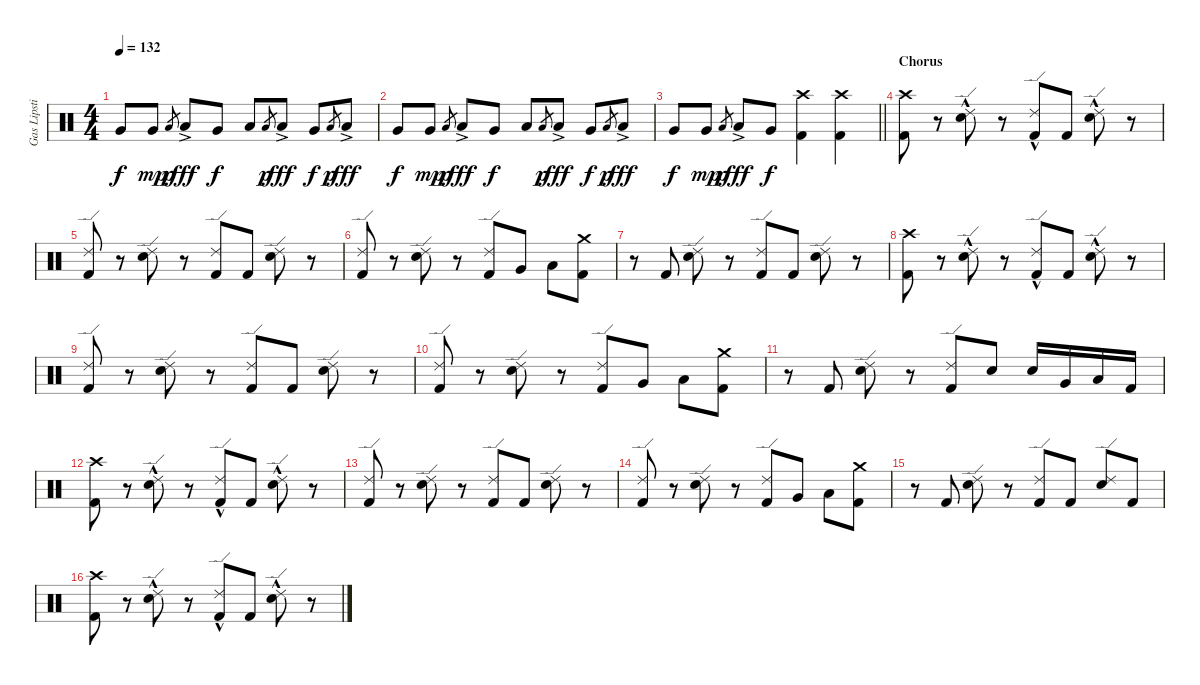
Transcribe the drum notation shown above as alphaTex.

\track ("Gas Lipstick (Drums)" "Gas Lipsti") {instrument percussion}
\staff {score}
\articulation defaults
\ts (4 4)
\tempo 132
\clef neutral
\ks c "Very Low Tom (hit)".8{dy f} "Very Low Tom (hit)".8{dy mp} "Low Tom (hit)".8{gr dy p} "Low Tom (hit)"{ac}.8{dy fff} "Very Low Tom (hit)".8{dy f} "Low Floor Tom (hit)".8 "Low Tom (hit)".8{gr dy p} "Low Tom (hit)"{ac}.8{dy fff} "Very Low Tom (hit)".8{dy f} "Low Tom (hit)".8{gr dy p} "Low Tom (hit)"{ac}.8{dy fff}
|
"Very Low Tom (hit)".8{dy f} "Very Low Tom (hit)".8{dy mp} "Low Tom (hit)".8{gr dy p} "Low Tom (hit)"{ac}.8{dy fff} "Very Low Tom (hit)".8{dy f} "Low Floor Tom (hit)".8 "Low Tom (hit)".8{gr dy p} "Low Tom (hit)"{ac}.8{dy fff} "Very Low Tom (hit)".8{dy f} "Low Tom (hit)".8{gr dy p} "Low Tom (hit)"{ac}.8{dy fff} |
\barLineRight lightlight "Very Low Tom (hit)".8{dy f} "Very Low Tom (hit)".8{dy mp} "Low Tom (hit)".8{gr dy p} "Low Tom (hit)"{ac}.8{dy fff} "Very Low Tom (hit)".8{dy f}
("Crash high (hit)" "Kick (hit) 2").4 ("Crash high (hit)" "Kick (hit) 2").4 |
\section ("" "Chorus")
("Crash high (hit)" "Kick (hit) 2").8 r.8 ("Ride (edge) 2"{hac} "Snare (hit) 2").8 r.8 ("Ride (edge) 2"{hac} "Kick (hit) 2").8 "Kick (hit) 2".8 ("Ride (edge) 2"{hac} "Snare (hit) 2").8 r.8 |
("Ride (edge) 2" "Kick (hit) 2").8 r.8 ("Ride (edge) 2" "Snare (hit) 2").8 r.8 ("Ride (edge) 2" "Kick (hit) 2").8 "Kick (hit) 2".8 ("Ride (edge) 2" "Snare (hit) 2").8 r.8 |
("Ride (edge) 2" "Kick (hit) 2").8 r.8 ("Ride (edge) 2" "Snare (hit) 2").8 r.8 ("Ride (edge) 2" "Kick (hit) 2").8 "Very Low Tom (hit)".8 "Low Floor Tom (hit)".8 ("Crash medium (hit)" "Kick (hit) 2").8 |
r.8 "Kick (hit) 2".8 ("Ride (edge) 2" "Snare (hit) 2").8 r.8 ("Ride (edge) 2" "Kick (hit) 2").8 "Kick (hit) 2".8 ("Ride (edge) 2" "Snare (hit) 2").8 r.8 |
("Crash high (hit)" "Kick (hit) 2").8 r.8 ("Ride (edge) 2"{hac} "Snare (hit) 2").8 r.8 ("Ride (edge) 2"{hac} "Kick (hit) 2").8 "Kick (hit) 2".8 ("Ride (edge) 2"{hac} "Snare (hit) 2").8 r.8 |
("Ride (edge) 2" "Kick (hit) 2").8 r.8 ("Ride (edge) 2" "Snare (hit) 2").8 r.8 ("Ride (edge) 2" "Kick (hit) 2").8 "Kick (hit) 2".8 ("Ride (edge) 2" "Snare (hit) 2").8 r.8 |
("Ride (edge) 2" "Kick (hit) 2").8 r.8 ("Ride (edge) 2" "Snare (hit) 2").8 r.8 ("Ride (edge) 2" "Kick (hit) 2").8 "Very Low Tom (hit)".8 "Low Floor Tom (hit)".8 ("Crash medium (hit)" "Kick (hit) 2").8 |
r.8 "Kick (hit) 2".8 ("Ride (edge) 2" "Snare (hit) 2").8 r.8 ("Ride (edge) 2" "Kick (hit) 2").8 "Snare (hit) 2".8 "Snare (hit) 2".16 "Very Low Tom (hit)".16 "Low Floor Tom (hit)".16 "Kick (hit) 2".16 |
("Crash high (hit)" "Kick (hit) 2").8 r.8 ("Ride (edge) 2"{hac} "Snare (hit) 2").8 r.8 ("Ride (edge) 2"{hac} "Kick (hit) 2").8 "Kick (hit) 2".8 ("Ride (edge) 2"{hac} "Snare (hit) 2").8 r.8 |
("Ride (edge) 2" "Kick (hit) 2").8 r.8 ("Ride (edge) 2" "Snare (hit) 2").8 r.8 ("Ride (edge) 2" "Kick (hit) 2").8 "Kick (hit) 2".8 ("Ride (edge) 2" "Snare (hit) 2").8 r.8 |
("Ride (edge) 2" "Kick (hit) 2").8 r.8 ("Ride (edge) 2" "Snare (hit) 2").8 r.8 ("Ride (edge) 2" "Kick (hit) 2").8 "Very Low Tom (hit)".8 "Low Floor Tom (hit)".8 ("Crash medium (hit)" "Kick (hit) 2").8 |
r.8 "Kick (hit) 2".8 ("Ride (edge) 2" "Snare (hit) 2").8 r.8 ("Ride (edge) 2" "Kick (hit) 2").8 "Kick (hit) 2".8 ("Ride (edge) 2" "Snare (hit) 2").8 "Kick (hit) 2".8 |
("Crash high (hit)" "Kick (hit) 2").8 r.8 ("Ride (edge) 2"{hac} "Snare (hit) 2").8 r.8 ("Ride (edge) 2"{hac} "Kick (hit) 2").8 "Kick (hit) 2".8 ("Ride (edge) 2"{hac} "Snare (hit) 2").8 r.8
